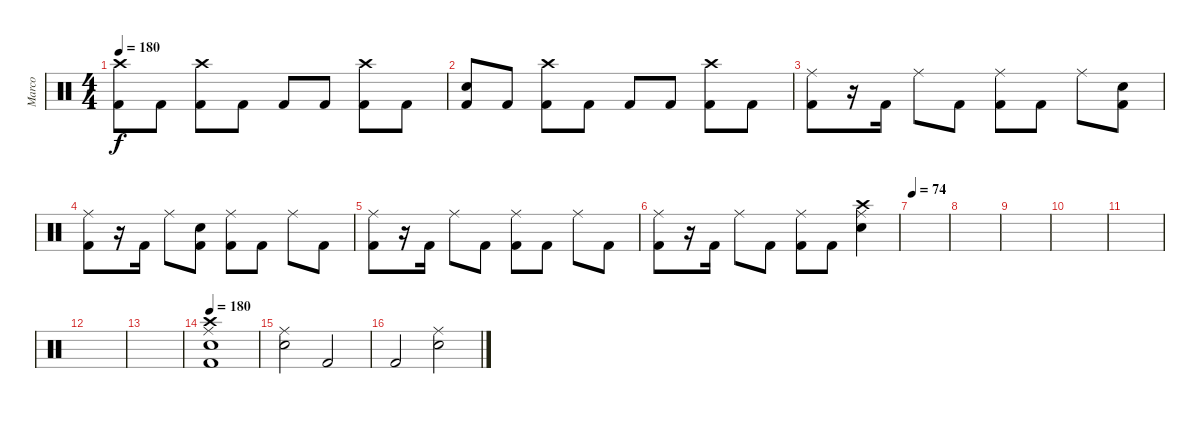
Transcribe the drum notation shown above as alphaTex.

\track ("Marco" "Marco") {instrument percussion}
\staff {score}
\articulation defaults
\ts (4 4)
\tempo 180
\clef neutral
\ks c
("Kick (hit) 2" "Crash high (hit)").8{dy f} "Kick (hit) 2".8 ("Kick (hit) 2" "Crash high (hit)").8 "Kick (hit) 2".8 "Kick (hit) 2".8 "Kick (hit) 2".8 ("Kick (hit) 2" "Crash high (hit)").8 "Kick (hit) 2".8 |
("Kick (hit) 2" "Electric Snare (hit)").8 "Kick (hit) 2".8 ("Kick (hit) 2" "Crash high (hit)").8 "Kick (hit) 2".8 "Kick (hit) 2".8 "Kick (hit) 2".8 ("Kick (hit) 2" "Crash high (hit)").8 "Kick (hit) 2".8 |
("Kick (hit) 2" "Ride (middle)").8 r.16 "Kick (hit) 2".16 "Ride (middle)".8 "Kick (hit) 2".8 ("Kick (hit) 2" "Ride (middle)").8 "Kick (hit) 2".8 "Ride (middle)".8 ("Kick (hit) 2" "Electric Snare (hit)").8 |
("Kick (hit) 2" "Ride (middle)").8 r.16 "Kick (hit) 2".16 "Ride (middle)".8 ("Kick (hit) 2" "Electric Snare (hit)").8 ("Kick (hit) 2" "Ride (middle)").8 "Kick (hit) 2".8 "Ride (middle)".8 "Kick (hit) 2".8 |
("Kick (hit) 2" "Ride (middle)").8 r.16 "Kick (hit) 2".16 "Ride (middle)".8 "Kick (hit) 2".8 ("Kick (hit) 2" "Ride (middle)").8 "Kick (hit) 2".8 "Ride (middle)".8 "Kick (hit) 2".8 |
("Kick (hit) 2" "Ride (middle)").8 r.16 "Kick (hit) 2".16 "Ride (middle)".8 "Kick (hit) 2".8 ("Kick (hit) 2" "Ride (middle)").8 "Kick (hit) 2".8 ("Electric Snare (hit)" "Ride (middle)" "Crash high (hit)").4 |
\tempo 74
|
|
|
|
|
|
|
\tempo 180
("Kick (hit) 2" "Electric Snare (hit)" "Ride (middle)" "Crash high (hit)").1 |
("Electric Snare (hit)" "Ride (middle)").2 "Kick (hit) 2".2 |
"Kick (hit) 2".2 ("Electric Snare (hit)" "Ride (middle)").2
